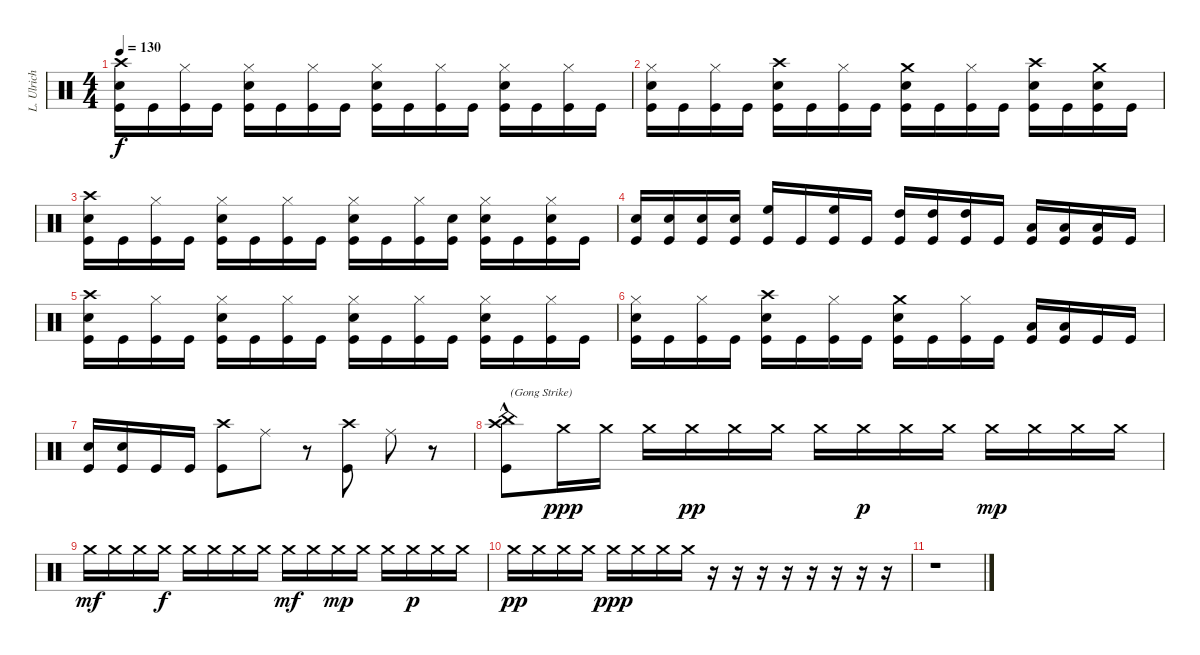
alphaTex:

\track ("L. Ulrich" "L. Ulrich") {instrument percussion}
\staff {score}
\articulation defaults
\ts (4 4)
\tempo 130
\clef neutral
\ks c
("Crash high (hit)" "Snare (hit) 2" "Kick (hit)").16{dy f} "Kick (hit)".16 ("Hi-Hat (closed)" "Kick (hit)").16 "Kick (hit)".16 ("Hi-Hat (closed)" "Snare (hit) 2" "Kick (hit)").16 "Kick (hit)".16 ("Hi-Hat (closed)" "Kick (hit)").16 "Kick (hit)".16 ("Hi-Hat (closed)" "Snare (hit) 2" "Kick (hit)").16 "Kick (hit)".16 ("Hi-Hat (closed)" "Kick (hit)").16 "Kick (hit)".16 ("Hi-Hat (closed)" "Snare (hit) 2" "Kick (hit)").16 "Kick (hit)".16 ("Hi-Hat (closed)" "Kick (hit)").16 "Kick (hit)".16 |
("Hi-Hat (closed)" "Snare (hit) 2" "Kick (hit)").16 "Kick (hit)".16 ("Hi-Hat (closed)" "Kick (hit)").16 "Kick (hit)".16 ("Crash high (hit)" "Snare (hit) 2" "Kick (hit)").16 "Kick (hit)".16 ("Hi-Hat (closed)" "Kick (hit)").16 "Kick (hit)".16 ("Crash medium (hit)" "Snare (hit) 2" "Kick (hit)").16 "Kick (hit)".16 ("Hi-Hat (closed)" "Kick (hit)").16 "Kick (hit)".16 ("Crash high (hit)" "Snare (hit) 2" "Kick (hit)").16 "Kick (hit)".16 ("Crash medium (hit)" "Snare (hit) 2" "Kick (hit)").16 "Kick (hit)".16 |
("Crash high (hit)" "Snare (hit) 2" "Kick (hit)").16 "Kick (hit)".16 ("Hi-Hat (closed)" "Kick (hit)").16 "Kick (hit)".16 ("Hi-Hat (closed)" "Snare (hit) 2" "Kick (hit)").16 "Kick (hit)".16 ("Hi-Hat (closed)" "Kick (hit)").16 "Kick (hit)".16 ("Hi-Hat (closed)" "Snare (hit) 2" "Kick (hit)").16 "Kick (hit)".16 ("Hi-Hat (closed)" "Kick (hit)").16 ("Snare (hit) 2" "Kick (hit)").16 ("Hi-Hat (closed)" "Snare (hit) 2" "Kick (hit)").16 "Kick (hit)".16 ("Hi-Hat (closed)" "Snare (hit) 2" "Kick (hit)").16 "Kick (hit)".16 |
("Snare (hit) 2" "Kick (hit)").16 ("Snare (hit) 2" "Kick (hit)").16 ("Snare (hit) 2" "Kick (hit)").16 ("Snare (hit) 2" "Kick (hit)").16 ("High Floor Tom (hit)" "Kick (hit)").16 "Kick (hit)".16 ("High Floor Tom (hit)" "Kick (hit)").16 "Kick (hit)".16 ("High Tom (hit)" "Kick (hit)").16 ("High Tom (hit)" "Kick (hit)").16 ("High Tom (hit)" "Kick (hit)").16 "Kick (hit)".16 ("Low Tom (hit)" "Kick (hit)").16 ("Low Tom (hit)" "Kick (hit)").16 ("Low Tom (hit)" "Kick (hit)").16 "Kick (hit)".16 |
("Crash high (hit)" "Snare (hit) 2" "Kick (hit)").16 "Kick (hit)".16 ("Hi-Hat (closed)" "Kick (hit)").16 "Kick (hit)".16 ("Hi-Hat (closed)" "Snare (hit) 2" "Kick (hit)").16 "Kick (hit)".16 ("Hi-Hat (closed)" "Kick (hit)").16 "Kick (hit)".16 ("Hi-Hat (closed)" "Snare (hit) 2" "Kick (hit)").16 "Kick (hit)".16 ("Hi-Hat (closed)" "Kick (hit)").16 "Kick (hit)".16 ("Hi-Hat (closed)" "Snare (hit) 2" "Kick (hit)").16 "Kick (hit)".16 ("Hi-Hat (closed)" "Kick (hit)").16 "Kick (hit)".16 |
("Hi-Hat (closed)" "Snare (hit) 2" "Kick (hit)").16 "Kick (hit)".16 ("Hi-Hat (closed)" "Kick (hit)").16 "Kick (hit)".16 ("Crash high (hit)" "Snare (hit) 2" "Kick (hit)").16 "Kick (hit)".16 ("Hi-Hat (closed)" "Kick (hit)").16 "Kick (hit)".16 ("Crash medium (hit)" "Snare (hit) 2" "Kick (hit)").16 "Kick (hit)".16 ("Hi-Hat (closed)" "Kick (hit)").16 "Kick (hit)".16 ("Low Tom (hit)" "Kick (hit)").16 ("Low Tom (hit)" "Kick (hit)").16 "Kick (hit)".16 "Kick (hit)".16 |
("Snare (hit) 2" "Kick (hit)").16 ("Snare (hit) 2" "Kick (hit)").16 "Kick (hit)".16 "Kick (hit)".16 ("Crash high (hit)" "Kick (hit)").8 "Ride (middle)".8 r.8 ("Crash high (hit)" "Kick (hit)").8 "Ride (middle)".8 r.8 |
("China (hit)"{hac} "Crash high (hit)" "Kick (hit)").8{txt "(Gong Strike)"} "Crash medium (hit)".16{dy ppp} "Crash medium (hit)".16 "Crash medium (hit)".16 "Crash medium (hit)".16{dy pp} "Crash medium (hit)".16 "Crash medium (hit)".16 "Crash medium (hit)".16 "Crash medium (hit)".16{dy p} "Crash medium (hit)".16 "Crash medium (hit)".16 "Crash medium (hit)".16{dy mp} "Crash medium (hit)".16 "Crash medium (hit)".16 "Crash medium (hit)".16 |
"Crash medium (hit)".16{dy mf} "Crash medium (hit)".16 "Crash medium (hit)".16 "Crash medium (hit)".16{dy f} "Crash medium (hit)".16 "Crash medium (hit)".16 "Crash medium (hit)".16 "Crash medium (hit)".16 "Crash medium (hit)".16{dy mf} "Crash medium (hit)".16 "Crash medium (hit)".16{dy mp} "Crash medium (hit)".16 "Crash medium (hit)".16 "Crash medium (hit)".16{dy p} "Crash medium (hit)".16 "Crash medium (hit)".16 |
"Crash medium (hit)".16{dy pp} "Crash medium (hit)".16 "Crash medium (hit)".16 "Crash medium (hit)".16 "Crash medium (hit)".16{dy ppp} "Crash medium (hit)".16 "Crash medium (hit)".16 "Crash medium (hit)".16 r.16 r.16 r.16 r.16 r.16 r.16 r.16 r.16 |
r.1
